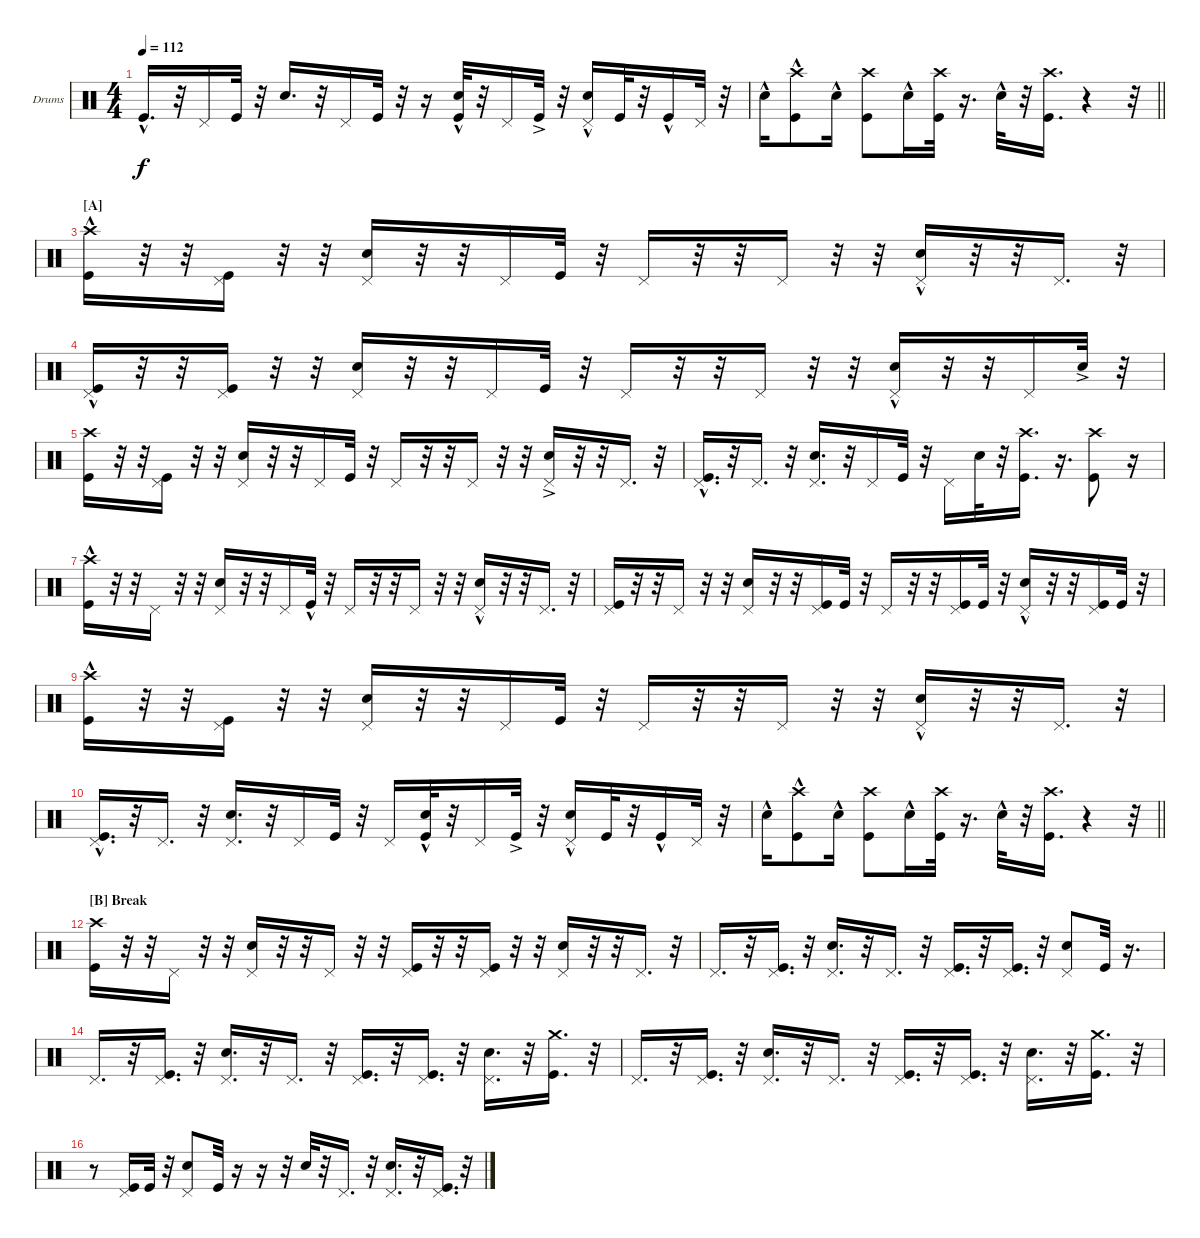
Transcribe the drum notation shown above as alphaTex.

\bracketExtendMode nobrackets
\firstSystemTrackNameOrientation horizontal
\otherSystemsTrackNameOrientation horizontal
\defaultBarNumberDisplay FirstOfSystem
\track ("Drumkit" "Drums") {instrument percussion}
\staff {score}
\articulation defaults
\ts (4 4)
\scale
0.463573
\tempo 112
\accidentals auto
\clef neutral
\ottava regular
\simile none
\ks c "Kick (hit)"{hac}.16{d dy f}
r.32 "Pedal Hi-Hat (hit)".16 "Kick (hit)".32 r.32 "Snare (hit) 2".16{d} r.32 "Pedal Hi-Hat (hit)".16 "Kick (hit)".32 r.32 r.16 ("Snare (hit) 2" "Kick (hit)"{hac}).32 r.32 "Pedal Hi-Hat (hit)".16 "Kick (hit)"{ac}.32 r.32 ("Pedal Hi-Hat (hit)" "Snare (hit) 2"{hac}).16 "Kick (hit)".32 r.32 "Kick (hit)"{hac}.16 "Pedal Hi-Hat (hit)".32 r.32 |
\scale
0.282051
\barLineRight lightlight "Snare (hit) 2"{hac}.16
("Crash high (hit)" "Kick (hit)"{hac}).8 "Snare (hit) 2"{hac}.16 ("Crash high (hit)" "Kick (hit)").8 "Snare (hit) 2"{hac}.16 ("Crash high (hit)" "Kick (hit)").32 r.16{d} "Snare (hit) 2"{hac}.32 r.32 ("Crash high (hit)" "Kick (hit)").16{d} r.4 r.32 |
\section ("A" "")
("Crash high (hit)" "Kick (hit)"{hac}).16 r.32 r.32 ("Pedal Hi-Hat (hit)" "Kick (hit)").16 r.32 r.32 ("Pedal Hi-Hat (hit)" "Snare (hit) 2").16 r.32 r.32 "Pedal Hi-Hat (hit)".16 "Kick (hit)".32 r.32 "Pedal Hi-Hat (hit)".16 r.32 r.32 "Pedal Hi-Hat (hit)".16 r.32 r.32 ("Pedal Hi-Hat (hit)" "Snare (hit) 2"{hac}).16 r.32 r.32 "Pedal Hi-Hat (hit)".16{d} r.32 |
("Pedal Hi-Hat (hit)" "Kick (hit)"{hac}).16 r.32 r.32 ("Pedal Hi-Hat (hit)" "Kick (hit)").16 r.32 r.32 ("Pedal Hi-Hat (hit)" "Snare (hit) 2").16 r.32 r.32 "Pedal Hi-Hat (hit)".16 "Kick (hit)".32 r.32 "Pedal Hi-Hat (hit)".16 r.32 r.32 "Pedal Hi-Hat (hit)".16 r.32 r.32 ("Pedal Hi-Hat (hit)" "Snare (hit) 2"{hac}).16 r.32 r.32 "Pedal Hi-Hat (hit)".16 "Snare (hit) 2"{ac}.32 r.32 |
("Crash high (hit)" "Kick (hit)").16 r.32 r.32 ("Pedal Hi-Hat (hit)" "Kick (hit)").16 r.32 r.32 ("Pedal Hi-Hat (hit)" "Snare (hit) 2").16 r.32 r.32 "Pedal Hi-Hat (hit)".16 "Kick (hit)".32 r.32 "Pedal Hi-Hat (hit)".16 r.32 r.32 "Pedal Hi-Hat (hit)".16 r.32 r.32 ("Pedal Hi-Hat (hit)" "Snare (hit) 2"{ac}).16 r.32 r.32 "Pedal Hi-Hat (hit)".16{d} r.32 |
("Pedal Hi-Hat (hit)" "Kick (hit)"{hac}).16{d} r.32 "Pedal Hi-Hat (hit)".16{d} r.32 ("Pedal Hi-Hat (hit)" "Snare (hit) 2").16{d} r.32 "Pedal Hi-Hat (hit)".16 "Kick (hit)".32 r.32 "Pedal Hi-Hat (hit)".16 "Snare (hit) 2".32 r.32 ("Crash high (hit)" "Kick (hit)").16{d} r.16{d} ("Crash high (hit)" "Kick (hit)").8 r.16 |
("Crash high (hit)" "Kick (hit)"{hac}).16 r.32 r.32 "Pedal Hi-Hat (hit)".16 r.32 r.32 ("Pedal Hi-Hat (hit)" "Snare (hit) 2").16 r.32 r.32 "Pedal Hi-Hat (hit)".16 "Kick (hit)"{hac}.32 r.32 "Pedal Hi-Hat (hit)".16 r.32 r.32 "Pedal Hi-Hat (hit)".16 r.32 r.32 ("Pedal Hi-Hat (hit)" "Snare (hit) 2"{hac}).16 r.32 r.32 "Pedal Hi-Hat (hit)".16{d} r.32 |
("Pedal Hi-Hat (hit)" "Kick (hit)").16 r.32 r.32 "Pedal Hi-Hat (hit)".16 r.32 r.32 ("Pedal Hi-Hat (hit)" "Snare (hit) 2").16 r.32 r.32 ("Pedal Hi-Hat (hit)" "Kick (hit)").16 "Kick (hit)".32 r.32 "Pedal Hi-Hat (hit)".16 r.32 r.32 ("Pedal Hi-Hat (hit)" "Kick (hit)").16 "Kick (hit)".32 r.32 ("Pedal Hi-Hat (hit)" "Snare (hit) 2"{hac}).16 r.32 r.32 ("Pedal Hi-Hat (hit)" "Kick (hit)").16 "Kick (hit)".32 r.32 |
("Crash high (hit)" "Kick (hit)"{hac}).16 r.32 r.32 ("Pedal Hi-Hat (hit)" "Kick (hit)").16 r.32 r.32 ("Pedal Hi-Hat (hit)" "Snare (hit) 2").16 r.32 r.32 "Pedal Hi-Hat (hit)".16 "Kick (hit)".32 r.32 "Pedal Hi-Hat (hit)".16 r.32 r.32 "Pedal Hi-Hat (hit)".16 r.32 r.32 ("Pedal Hi-Hat (hit)" "Snare (hit) 2"{hac}).16 r.32 r.32 "Pedal Hi-Hat (hit)".16{d} r.32 |
("Pedal Hi-Hat (hit)" "Kick (hit)"{hac}).16{d} r.32 "Pedal Hi-Hat (hit)".16{d} r.32 ("Pedal Hi-Hat (hit)" "Snare (hit) 2").16{d} r.32 "Pedal Hi-Hat (hit)".16 "Kick (hit)".32 r.32 "Pedal Hi-Hat (hit)".16 ("Snare (hit) 2" "Kick (hit)"{hac}).32 r.32 "Pedal Hi-Hat (hit)".16 "Kick (hit)"{ac}.32 r.32 ("Pedal Hi-Hat (hit)" "Snare (hit) 2"{hac}).16 "Kick (hit)".32 r.32 "Kick (hit)"{hac}.16 "Pedal Hi-Hat (hit)".32 r.32 |
\barLineRight lightlight "Snare (hit) 2"{hac}.16
("Crash high (hit)" "Kick (hit)"{hac}).8 "Snare (hit) 2"{hac}.16 ("Crash high (hit)" "Kick (hit)").8 "Snare (hit) 2"{hac}.16 ("Crash high (hit)" "Kick (hit)").32 r.16{d} "Snare (hit) 2"{hac}.32 r.32 ("Crash high (hit)" "Kick (hit)").16{d} r.4 r.32 |
\section ("B" "Break")
("Crash high (hit)" "Kick (hit)").16 r.32 r.32 "Pedal Hi-Hat (hit)".16 r.32 r.32 ("Pedal Hi-Hat (hit)" "Snare (hit) 2").16 r.32 r.32 "Pedal Hi-Hat (hit)".16 r.32 r.32 ("Pedal Hi-Hat (hit)" "Kick (hit)").16 r.32 r.32 ("Pedal Hi-Hat (hit)" "Kick (hit)").16 r.32 r.32 ("Pedal Hi-Hat (hit)" "Snare (hit) 2").16 r.32 r.32 "Pedal Hi-Hat (hit)".16{d} r.32 |
"Pedal Hi-Hat (hit)".16{d} r.32 ("Pedal Hi-Hat (hit)" "Kick (hit)").16{d} r.32 ("Pedal Hi-Hat (hit)" "Snare (hit) 2").16{d} r.32 "Pedal Hi-Hat (hit)".16{d} r.32 ("Pedal Hi-Hat (hit)" "Kick (hit)").16{d} r.32 ("Pedal Hi-Hat (hit)" "Kick (hit)").16{d} r.32 ("Pedal Hi-Hat (hit)" "Snare (hit) 2").8 "Kick (hit)".32 r.16{d} |
"Pedal Hi-Hat (hit)".16{d} r.32 ("Pedal Hi-Hat (hit)" "Kick (hit)").16{d} r.32 ("Pedal Hi-Hat (hit)" "Snare (hit) 2").16{d} r.32 "Pedal Hi-Hat (hit)".16{d} r.32 ("Pedal Hi-Hat (hit)" "Kick (hit)").16{d} r.32 ("Pedal Hi-Hat (hit)" "Kick (hit)").16{d} r.32 ("Pedal Hi-Hat (hit)" "Snare (hit) 2").16{d} r.32 ("Kick (hit)" "Crash medium (hit)").16{d} r.32 |
"Pedal Hi-Hat (hit)".16{d} r.32 ("Pedal Hi-Hat (hit)" "Kick (hit)").16{d} r.32 ("Pedal Hi-Hat (hit)" "Snare (hit) 2").16{d} r.32 "Pedal Hi-Hat (hit)".16{d} r.32 ("Pedal Hi-Hat (hit)" "Kick (hit)").16{d} r.32 ("Pedal Hi-Hat (hit)" "Kick (hit)").16{d} r.32 ("Pedal Hi-Hat (hit)" "Snare (hit) 2").16{d} r.32 ("Kick (hit)" "Crash medium (hit)").16{d} r.32 |
r.8 ("Pedal Hi-Hat (hit)" "Kick (hit)").16 "Kick (hit)".32 r.32 ("Pedal Hi-Hat (hit)" "Snare (hit) 2").8 "Kick (hit)".32 r.16 r.16 r.32 "Snare (hit) 2".32 r.32 "Pedal Hi-Hat (hit)".16{d} r.32 ("Pedal Hi-Hat (hit)" "Snare (hit) 2").16{d} r.32 ("Pedal Hi-Hat (hit)" "Kick (hit)").16{d} r.32
